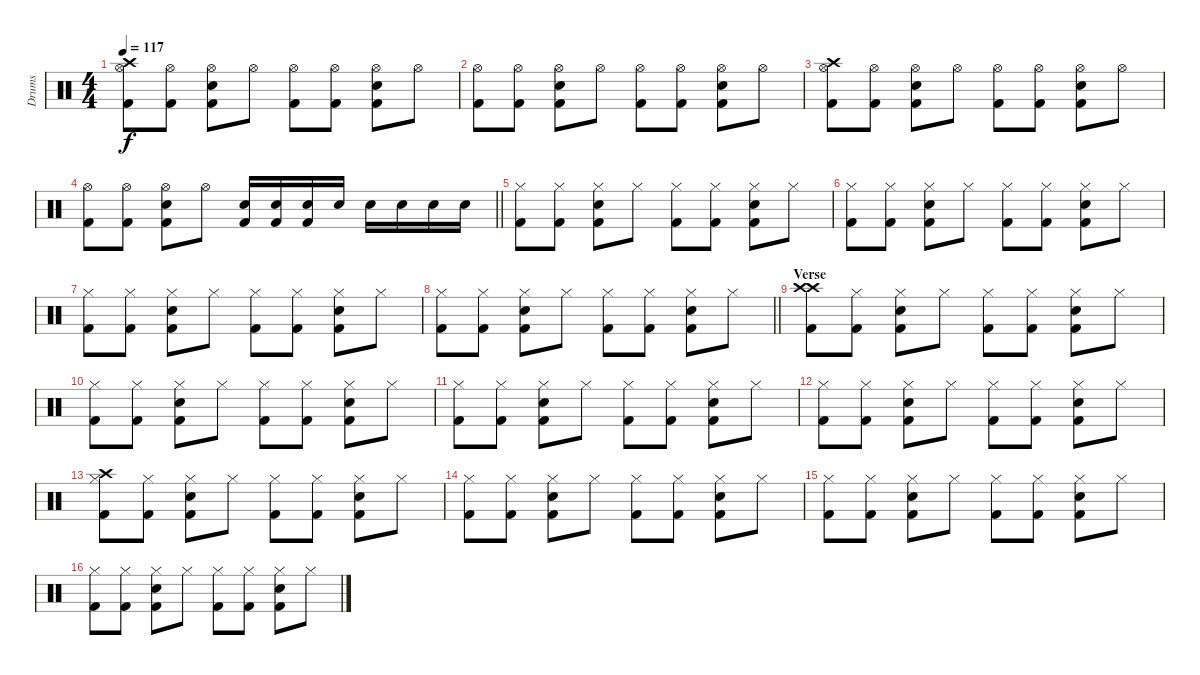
\track ("Drums" "Drums") {instrument percussion}
\staff {score}
\articulation defaults
\ts (4 4)
\tempo 117
\clef neutral
\ks c
("Kick (hit) 2" "Hi-Hat (open)" "Crash high (hit)").8{dy f} ("Kick (hit) 2" "Hi-Hat (open)").8 ("Kick (hit) 2" "Hi-Hat (open)" "Snare (hit) 2").8 "Hi-Hat (open)".8 ("Kick (hit) 2" "Hi-Hat (open)").8 ("Kick (hit) 2" "Hi-Hat (open)").8 ("Kick (hit) 2" "Hi-Hat (open)" "Snare (hit) 2").8 "Hi-Hat (open)".8 |
("Kick (hit) 2" "Hi-Hat (open)").8 ("Kick (hit) 2" "Hi-Hat (open)").8 ("Kick (hit) 2" "Hi-Hat (open)" "Snare (hit) 2").8 "Hi-Hat (open)".8 ("Kick (hit) 2" "Hi-Hat (open)").8 ("Kick (hit) 2" "Hi-Hat (open)").8 ("Kick (hit) 2" "Hi-Hat (open)" "Snare (hit) 2").8 "Hi-Hat (open)".8 |
("Kick (hit) 2" "Hi-Hat (open)" "Crash high (hit)").8 ("Kick (hit) 2" "Hi-Hat (open)").8 ("Kick (hit) 2" "Hi-Hat (open)" "Snare (hit) 2").8 "Hi-Hat (open)".8 ("Kick (hit) 2" "Hi-Hat (open)").8 ("Kick (hit) 2" "Hi-Hat (open)").8 ("Kick (hit) 2" "Hi-Hat (open)" "Snare (hit) 2").8 "Hi-Hat (open)".8 |
\barLineRight lightlight
("Kick (hit) 2" "Hi-Hat (open)").8 ("Kick (hit) 2" "Hi-Hat (open)").8 ("Kick (hit) 2" "Hi-Hat (open)" "Snare (hit) 2").8 "Hi-Hat (open)".8 ("Kick (hit) 2" "Snare (hit) 2").16 ("Kick (hit) 2" "Snare (hit) 2").16 ("Kick (hit) 2" "Snare (hit) 2").16 "Snare (hit) 2".16 "Snare (hit) 2".16 "Snare (hit) 2".16 "Snare (hit) 2".16 "Snare (hit) 2".16 |
("Kick (hit) 2" "Hi-Hat (closed)").8{volume 4} ("Kick (hit) 2" "Hi-Hat (closed)").8 ("Kick (hit) 2" "Hi-Hat (closed)" "Snare (hit) 2").8 "Hi-Hat (closed)".8 ("Kick (hit) 2" "Hi-Hat (closed)").8 ("Kick (hit) 2" "Hi-Hat (closed)").8 ("Kick (hit) 2" "Hi-Hat (closed)" "Snare (hit) 2").8 "Hi-Hat (closed)".8 |
("Kick (hit) 2" "Hi-Hat (closed)").8 ("Kick (hit) 2" "Hi-Hat (closed)").8 ("Kick (hit) 2" "Hi-Hat (closed)" "Snare (hit) 2").8 "Hi-Hat (closed)".8 ("Kick (hit) 2" "Hi-Hat (closed)").8 ("Kick (hit) 2" "Hi-Hat (closed)").8 ("Kick (hit) 2" "Hi-Hat (closed)" "Snare (hit) 2").8 "Hi-Hat (closed)".8 |
("Kick (hit) 2" "Hi-Hat (closed)").8 ("Kick (hit) 2" "Hi-Hat (closed)").8 ("Kick (hit) 2" "Hi-Hat (closed)" "Snare (hit) 2").8 "Hi-Hat (closed)".8 ("Kick (hit) 2" "Hi-Hat (closed)").8 ("Kick (hit) 2" "Hi-Hat (closed)").8 ("Kick (hit) 2" "Hi-Hat (closed)" "Snare (hit) 2").8 "Hi-Hat (closed)".8 |
\barLineRight lightlight
("Kick (hit) 2" "Hi-Hat (closed)").8 ("Kick (hit) 2" "Hi-Hat (closed)").8 ("Kick (hit) 2" "Hi-Hat (closed)" "Snare (hit) 2").8 "Hi-Hat (closed)".8 ("Kick (hit) 2" "Hi-Hat (closed)").8 ("Kick (hit) 2" "Hi-Hat (closed)").8 ("Kick (hit) 2" "Hi-Hat (closed)" "Snare (hit) 2").8 "Hi-Hat (closed)".8 |
\section ("" "Verse")
("Kick (hit) 2" "Crash high (hit)" "Crash high (hit)").8{volume 13} ("Kick (hit) 2" "Hi-Hat (closed)").8 ("Kick (hit) 2" "Hi-Hat (closed)" "Snare (hit) 2").8 "Hi-Hat (closed)".8 ("Kick (hit) 2" "Hi-Hat (closed)").8 ("Kick (hit) 2" "Hi-Hat (closed)").8 ("Kick (hit) 2" "Hi-Hat (closed)" "Snare (hit) 2").8 "Hi-Hat (closed)".8 |
("Kick (hit) 2" "Hi-Hat (closed)").8 ("Kick (hit) 2" "Hi-Hat (closed)").8 ("Kick (hit) 2" "Hi-Hat (closed)" "Snare (hit) 2").8 "Hi-Hat (closed)".8 ("Kick (hit) 2" "Hi-Hat (closed)").8 ("Kick (hit) 2" "Hi-Hat (closed)").8 ("Kick (hit) 2" "Hi-Hat (closed)" "Snare (hit) 2").8 "Hi-Hat (closed)".8 |
("Kick (hit) 2" "Hi-Hat (closed)").8 ("Kick (hit) 2" "Hi-Hat (closed)").8 ("Kick (hit) 2" "Hi-Hat (closed)" "Snare (hit) 2").8 "Hi-Hat (closed)".8 ("Kick (hit) 2" "Hi-Hat (closed)").8 ("Kick (hit) 2" "Hi-Hat (closed)").8 ("Kick (hit) 2" "Hi-Hat (closed)" "Snare (hit) 2").8 "Hi-Hat (closed)".8 |
("Kick (hit) 2" "Hi-Hat (closed)").8 ("Kick (hit) 2" "Hi-Hat (closed)").8 ("Kick (hit) 2" "Hi-Hat (closed)" "Snare (hit) 2").8 "Hi-Hat (closed)".8 ("Kick (hit) 2" "Hi-Hat (closed)").8 ("Kick (hit) 2" "Hi-Hat (closed)").8 ("Kick (hit) 2" "Hi-Hat (closed)" "Snare (hit) 2").8 "Hi-Hat (closed)".8 |
("Kick (hit) 2" "Hi-Hat (closed)" "Crash high (hit)").8 ("Kick (hit) 2" "Hi-Hat (closed)").8 ("Kick (hit) 2" "Hi-Hat (closed)" "Snare (hit) 2").8 "Hi-Hat (closed)".8 ("Kick (hit) 2" "Hi-Hat (closed)").8 ("Kick (hit) 2" "Hi-Hat (closed)").8 ("Kick (hit) 2" "Hi-Hat (closed)" "Snare (hit) 2").8 "Hi-Hat (closed)".8 |
("Kick (hit) 2" "Hi-Hat (closed)").8 ("Kick (hit) 2" "Hi-Hat (closed)").8 ("Kick (hit) 2" "Hi-Hat (closed)" "Snare (hit) 2").8 "Hi-Hat (closed)".8 ("Kick (hit) 2" "Hi-Hat (closed)").8 ("Kick (hit) 2" "Hi-Hat (closed)").8 ("Kick (hit) 2" "Hi-Hat (closed)" "Snare (hit) 2").8 "Hi-Hat (closed)".8 |
("Kick (hit) 2" "Hi-Hat (closed)").8 ("Kick (hit) 2" "Hi-Hat (closed)").8 ("Kick (hit) 2" "Hi-Hat (closed)" "Snare (hit) 2").8 "Hi-Hat (closed)".8 ("Kick (hit) 2" "Hi-Hat (closed)").8 ("Kick (hit) 2" "Hi-Hat (closed)").8 ("Kick (hit) 2" "Hi-Hat (closed)" "Snare (hit) 2").8 "Hi-Hat (closed)".8 |
("Kick (hit) 2" "Hi-Hat (closed)").8 ("Kick (hit) 2" "Hi-Hat (closed)").8 ("Kick (hit) 2" "Hi-Hat (closed)" "Snare (hit) 2").8 "Hi-Hat (closed)".8 ("Kick (hit) 2" "Hi-Hat (closed)").8 ("Kick (hit) 2" "Hi-Hat (closed)").8 ("Kick (hit) 2" "Hi-Hat (closed)" "Snare (hit) 2").8 "Hi-Hat (closed)".8
